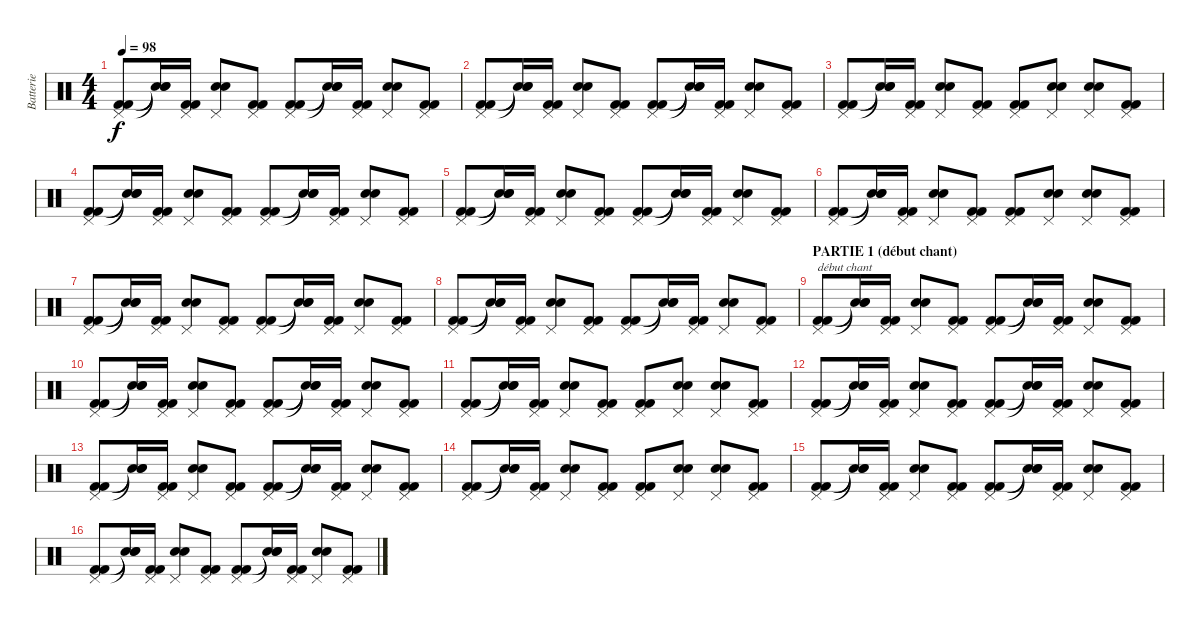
\track ("Batterie" "Batterie") {instrument percussion}
\staff {score}
\articulation defaults
\ts (4 4)
\tempo 98
\clef neutral
\ks c
("Pedal Hi-Hat (hit)" "Kick (hit) 2" "Kick (hit) 2").8{dy f} ("Snare (hit)"{t} "Snare (hit)"{t} "Snare (hit)"{t}).16 ("Pedal Hi-Hat (hit)" "Kick (hit) 2" "Kick (hit) 2").16 ("Pedal Hi-Hat (hit)" "Electric Snare (hit)" "Electric Snare (hit)").8 ("Pedal Hi-Hat (hit)" "Kick (hit) 2" "Kick (hit) 2").8 ("Pedal Hi-Hat (hit)" "Kick (hit) 2" "Kick (hit) 2").8 ("Snare (hit)"{t} "Snare (hit)"{t} "Snare (hit)"{t}).16 ("Pedal Hi-Hat (hit)" "Kick (hit) 2" "Kick (hit) 2").16 ("Pedal Hi-Hat (hit)" "Electric Snare (hit)" "Electric Snare (hit)").8 ("Pedal Hi-Hat (hit)" "Kick (hit) 2" "Kick (hit) 2").8 |
("Pedal Hi-Hat (hit)" "Kick (hit) 2" "Kick (hit) 2").8 ("Snare (hit)"{t} "Snare (hit)"{t} "Snare (hit)"{t}).16 ("Pedal Hi-Hat (hit)" "Kick (hit) 2" "Kick (hit) 2").16 ("Pedal Hi-Hat (hit)" "Electric Snare (hit)" "Electric Snare (hit)").8 ("Pedal Hi-Hat (hit)" "Kick (hit) 2" "Kick (hit) 2").8 ("Pedal Hi-Hat (hit)" "Kick (hit) 2" "Kick (hit) 2").8 ("Snare (hit)"{t} "Snare (hit)"{t} "Snare (hit)"{t}).16 ("Pedal Hi-Hat (hit)" "Kick (hit) 2" "Kick (hit) 2").16 ("Pedal Hi-Hat (hit)" "Electric Snare (hit)" "Electric Snare (hit)").8 ("Pedal Hi-Hat (hit)" "Kick (hit) 2" "Kick (hit) 2").8 |
("Pedal Hi-Hat (hit)" "Kick (hit) 2" "Kick (hit) 2").8 ("Snare (hit)"{t} "Snare (hit)"{t} "Snare (hit)"{t}).16 ("Pedal Hi-Hat (hit)" "Kick (hit) 2" "Kick (hit) 2").16 ("Pedal Hi-Hat (hit)" "Electric Snare (hit)" "Electric Snare (hit)").8 ("Pedal Hi-Hat (hit)" "Kick (hit) 2" "Kick (hit) 2").8 ("Pedal Hi-Hat (hit)" "Kick (hit) 2" "Kick (hit) 2").8 ("Pedal Hi-Hat (hit)" "Electric Snare (hit)" "Electric Snare (hit)").8 ("Pedal Hi-Hat (hit)" "Electric Snare (hit)" "Electric Snare (hit)").8 ("Pedal Hi-Hat (hit)" "Kick (hit) 2" "Kick (hit) 2").8 |
("Pedal Hi-Hat (hit)" "Kick (hit) 2" "Kick (hit) 2").8 ("Snare (hit)"{t} "Snare (hit)"{t} "Snare (hit)"{t}).16 ("Pedal Hi-Hat (hit)" "Kick (hit) 2" "Kick (hit) 2").16 ("Pedal Hi-Hat (hit)" "Electric Snare (hit)" "Electric Snare (hit)").8 ("Pedal Hi-Hat (hit)" "Kick (hit) 2" "Kick (hit) 2").8 ("Pedal Hi-Hat (hit)" "Kick (hit) 2" "Kick (hit) 2").8 ("Snare (hit)"{t} "Snare (hit)"{t} "Snare (hit)"{t}).16 ("Pedal Hi-Hat (hit)" "Kick (hit) 2" "Kick (hit) 2").16 ("Pedal Hi-Hat (hit)" "Electric Snare (hit)" "Electric Snare (hit)").8 ("Pedal Hi-Hat (hit)" "Kick (hit) 2" "Kick (hit) 2").8 |
("Pedal Hi-Hat (hit)" "Kick (hit) 2" "Kick (hit) 2").8 ("Snare (hit)"{t} "Snare (hit)"{t} "Snare (hit)"{t}).16 ("Pedal Hi-Hat (hit)" "Kick (hit) 2" "Kick (hit) 2").16 ("Pedal Hi-Hat (hit)" "Electric Snare (hit)" "Electric Snare (hit)").8 ("Pedal Hi-Hat (hit)" "Kick (hit) 2" "Kick (hit) 2").8 ("Pedal Hi-Hat (hit)" "Kick (hit) 2" "Kick (hit) 2").8 ("Snare (hit)"{t} "Snare (hit)"{t} "Snare (hit)"{t}).16 ("Pedal Hi-Hat (hit)" "Kick (hit) 2" "Kick (hit) 2").16 ("Pedal Hi-Hat (hit)" "Electric Snare (hit)" "Electric Snare (hit)").8 ("Pedal Hi-Hat (hit)" "Kick (hit) 2" "Kick (hit) 2").8 |
("Pedal Hi-Hat (hit)" "Kick (hit) 2" "Kick (hit) 2").8 ("Snare (hit)"{t} "Snare (hit)"{t} "Snare (hit)"{t}).16 ("Pedal Hi-Hat (hit)" "Kick (hit) 2" "Kick (hit) 2").16 ("Pedal Hi-Hat (hit)" "Electric Snare (hit)" "Electric Snare (hit)").8 ("Pedal Hi-Hat (hit)" "Kick (hit) 2" "Kick (hit) 2").8 ("Pedal Hi-Hat (hit)" "Kick (hit) 2" "Kick (hit) 2").8 ("Pedal Hi-Hat (hit)" "Electric Snare (hit)" "Electric Snare (hit)").8 ("Pedal Hi-Hat (hit)" "Electric Snare (hit)" "Electric Snare (hit)").8 ("Pedal Hi-Hat (hit)" "Kick (hit) 2" "Kick (hit) 2").8 |
("Pedal Hi-Hat (hit)" "Kick (hit) 2" "Kick (hit) 2").8 ("Snare (hit)"{t} "Snare (hit)"{t} "Snare (hit)"{t}).16 ("Pedal Hi-Hat (hit)" "Kick (hit) 2" "Kick (hit) 2").16 ("Pedal Hi-Hat (hit)" "Electric Snare (hit)" "Electric Snare (hit)").8 ("Pedal Hi-Hat (hit)" "Kick (hit) 2" "Kick (hit) 2").8 ("Pedal Hi-Hat (hit)" "Kick (hit) 2" "Kick (hit) 2").8 ("Snare (hit)"{t} "Snare (hit)"{t} "Snare (hit)"{t}).16 ("Pedal Hi-Hat (hit)" "Kick (hit) 2" "Kick (hit) 2").16 ("Pedal Hi-Hat (hit)" "Electric Snare (hit)" "Electric Snare (hit)").8 ("Pedal Hi-Hat (hit)" "Kick (hit) 2" "Kick (hit) 2").8 |
("Pedal Hi-Hat (hit)" "Kick (hit) 2" "Kick (hit) 2").8 ("Snare (hit)"{t} "Snare (hit)"{t} "Snare (hit)"{t}).16 ("Pedal Hi-Hat (hit)" "Kick (hit) 2" "Kick (hit) 2").16 ("Pedal Hi-Hat (hit)" "Electric Snare (hit)" "Electric Snare (hit)").8 ("Pedal Hi-Hat (hit)" "Kick (hit) 2" "Kick (hit) 2").8 ("Pedal Hi-Hat (hit)" "Kick (hit) 2" "Kick (hit) 2").8 ("Snare (hit)"{t} "Snare (hit)"{t} "Snare (hit)"{t}).16 ("Pedal Hi-Hat (hit)" "Kick (hit) 2" "Kick (hit) 2").16 ("Pedal Hi-Hat (hit)" "Electric Snare (hit)" "Electric Snare (hit)").8 ("Pedal Hi-Hat (hit)" "Kick (hit) 2" "Kick (hit) 2").8 |
\section ("" "PARTIE 1 (début chant)")
("Pedal Hi-Hat (hit)" "Kick (hit) 2" "Kick (hit) 2").8{txt "début chant"} ("Snare (hit)"{t} "Snare (hit)"{t} "Snare (hit)"{t}).16 ("Pedal Hi-Hat (hit)" "Kick (hit) 2" "Kick (hit) 2").16 ("Pedal Hi-Hat (hit)" "Electric Snare (hit)" "Electric Snare (hit)").8 ("Pedal Hi-Hat (hit)" "Kick (hit) 2" "Kick (hit) 2").8 ("Pedal Hi-Hat (hit)" "Kick (hit) 2" "Kick (hit) 2").8 ("Snare (hit)"{t} "Snare (hit)"{t} "Snare (hit)"{t}).16 ("Pedal Hi-Hat (hit)" "Kick (hit) 2" "Kick (hit) 2").16 ("Pedal Hi-Hat (hit)" "Electric Snare (hit)" "Electric Snare (hit)").8 ("Pedal Hi-Hat (hit)" "Kick (hit) 2" "Kick (hit) 2").8 |
("Pedal Hi-Hat (hit)" "Kick (hit) 2" "Kick (hit) 2").8 ("Snare (hit)"{t} "Snare (hit)"{t} "Snare (hit)"{t}).16 ("Pedal Hi-Hat (hit)" "Kick (hit) 2" "Kick (hit) 2").16 ("Pedal Hi-Hat (hit)" "Electric Snare (hit)" "Electric Snare (hit)").8 ("Pedal Hi-Hat (hit)" "Kick (hit) 2" "Kick (hit) 2").8 ("Pedal Hi-Hat (hit)" "Kick (hit) 2" "Kick (hit) 2").8 ("Snare (hit)"{t} "Snare (hit)"{t} "Snare (hit)"{t}).16 ("Pedal Hi-Hat (hit)" "Kick (hit) 2" "Kick (hit) 2").16 ("Pedal Hi-Hat (hit)" "Electric Snare (hit)" "Electric Snare (hit)").8 ("Pedal Hi-Hat (hit)" "Kick (hit) 2" "Kick (hit) 2").8 |
("Pedal Hi-Hat (hit)" "Kick (hit) 2" "Kick (hit) 2").8 ("Snare (hit)"{t} "Snare (hit)"{t} "Snare (hit)"{t}).16 ("Pedal Hi-Hat (hit)" "Kick (hit) 2" "Kick (hit) 2").16 ("Pedal Hi-Hat (hit)" "Electric Snare (hit)" "Electric Snare (hit)").8 ("Pedal Hi-Hat (hit)" "Kick (hit) 2" "Kick (hit) 2").8 ("Pedal Hi-Hat (hit)" "Kick (hit) 2" "Kick (hit) 2").8 ("Pedal Hi-Hat (hit)" "Electric Snare (hit)" "Electric Snare (hit)").8 ("Pedal Hi-Hat (hit)" "Electric Snare (hit)" "Electric Snare (hit)").8 ("Pedal Hi-Hat (hit)" "Kick (hit) 2" "Kick (hit) 2").8 |
("Pedal Hi-Hat (hit)" "Kick (hit) 2" "Kick (hit) 2").8 ("Snare (hit)"{t} "Snare (hit)"{t} "Snare (hit)"{t}).16 ("Pedal Hi-Hat (hit)" "Kick (hit) 2" "Kick (hit) 2").16 ("Pedal Hi-Hat (hit)" "Electric Snare (hit)" "Electric Snare (hit)").8 ("Pedal Hi-Hat (hit)" "Kick (hit) 2" "Kick (hit) 2").8 ("Pedal Hi-Hat (hit)" "Kick (hit) 2" "Kick (hit) 2").8 ("Snare (hit)"{t} "Snare (hit)"{t} "Snare (hit)"{t}).16 ("Pedal Hi-Hat (hit)" "Kick (hit) 2" "Kick (hit) 2").16 ("Pedal Hi-Hat (hit)" "Electric Snare (hit)" "Electric Snare (hit)").8 ("Pedal Hi-Hat (hit)" "Kick (hit) 2" "Kick (hit) 2").8 |
("Pedal Hi-Hat (hit)" "Kick (hit) 2" "Kick (hit) 2").8 ("Snare (hit)"{t} "Snare (hit)"{t} "Snare (hit)"{t}).16 ("Pedal Hi-Hat (hit)" "Kick (hit) 2" "Kick (hit) 2").16 ("Pedal Hi-Hat (hit)" "Electric Snare (hit)" "Electric Snare (hit)").8 ("Pedal Hi-Hat (hit)" "Kick (hit) 2" "Kick (hit) 2").8 ("Pedal Hi-Hat (hit)" "Kick (hit) 2" "Kick (hit) 2").8 ("Snare (hit)"{t} "Snare (hit)"{t} "Snare (hit)"{t}).16 ("Pedal Hi-Hat (hit)" "Kick (hit) 2" "Kick (hit) 2").16 ("Pedal Hi-Hat (hit)" "Electric Snare (hit)" "Electric Snare (hit)").8 ("Pedal Hi-Hat (hit)" "Kick (hit) 2" "Kick (hit) 2").8 |
("Pedal Hi-Hat (hit)" "Kick (hit) 2" "Kick (hit) 2").8 ("Snare (hit)"{t} "Snare (hit)"{t} "Snare (hit)"{t}).16 ("Pedal Hi-Hat (hit)" "Kick (hit) 2" "Kick (hit) 2").16 ("Pedal Hi-Hat (hit)" "Electric Snare (hit)" "Electric Snare (hit)").8 ("Pedal Hi-Hat (hit)" "Kick (hit) 2" "Kick (hit) 2").8 ("Pedal Hi-Hat (hit)" "Kick (hit) 2" "Kick (hit) 2").8 ("Pedal Hi-Hat (hit)" "Electric Snare (hit)" "Electric Snare (hit)").8 ("Pedal Hi-Hat (hit)" "Electric Snare (hit)" "Electric Snare (hit)").8 ("Pedal Hi-Hat (hit)" "Kick (hit) 2" "Kick (hit) 2").8 |
("Pedal Hi-Hat (hit)" "Kick (hit) 2" "Kick (hit) 2").8 ("Snare (hit)"{t} "Snare (hit)"{t} "Snare (hit)"{t}).16 ("Pedal Hi-Hat (hit)" "Kick (hit) 2" "Kick (hit) 2").16 ("Pedal Hi-Hat (hit)" "Electric Snare (hit)" "Electric Snare (hit)").8 ("Pedal Hi-Hat (hit)" "Kick (hit) 2" "Kick (hit) 2").8 ("Pedal Hi-Hat (hit)" "Kick (hit) 2" "Kick (hit) 2").8 ("Snare (hit)"{t} "Snare (hit)"{t} "Snare (hit)"{t}).16 ("Pedal Hi-Hat (hit)" "Kick (hit) 2" "Kick (hit) 2").16 ("Pedal Hi-Hat (hit)" "Electric Snare (hit)" "Electric Snare (hit)").8 ("Pedal Hi-Hat (hit)" "Kick (hit) 2" "Kick (hit) 2").8 |
("Pedal Hi-Hat (hit)" "Kick (hit) 2" "Kick (hit) 2").8 ("Snare (hit)"{t} "Snare (hit)"{t} "Snare (hit)"{t}).16 ("Pedal Hi-Hat (hit)" "Kick (hit) 2" "Kick (hit) 2").16 ("Pedal Hi-Hat (hit)" "Electric Snare (hit)" "Electric Snare (hit)").8 ("Pedal Hi-Hat (hit)" "Kick (hit) 2" "Kick (hit) 2").8 ("Pedal Hi-Hat (hit)" "Kick (hit) 2" "Kick (hit) 2").8 ("Snare (hit)"{t} "Snare (hit)"{t} "Snare (hit)"{t}).16 ("Pedal Hi-Hat (hit)" "Kick (hit) 2" "Kick (hit) 2").16 ("Pedal Hi-Hat (hit)" "Electric Snare (hit)" "Electric Snare (hit)").8 ("Pedal Hi-Hat (hit)" "Kick (hit) 2" "Kick (hit) 2").8
